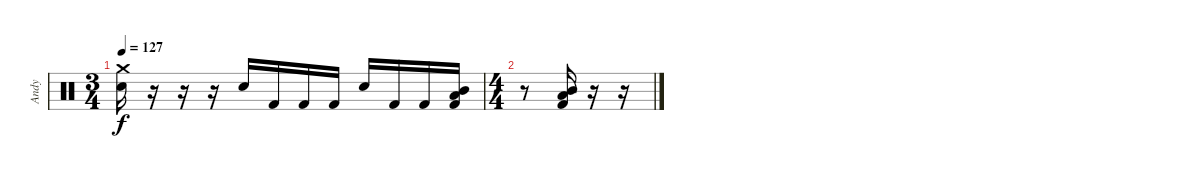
\track ("Andy" "Andy") {instrument percussion}
\staff {score}
\articulation defaults
\ts (3 4)
\tempo 127
\clef neutral
\ks c
("Crash medium (hit)" "Electric Snare (hit)").16{dy f} r.16 r.16 r.16 "Electric Snare (hit)".16 "Kick (hit) 2".16 "Kick (hit) 2".16 "Kick (hit) 2".16 "Electric Snare (hit)".16 "Kick (hit) 2".16 "Kick (hit) 2".16 ("Mid Tom (hit)" "Low Tom (hit)" "Kick (hit) 2").16 |
\ts (4 4)
r.8 ("Mid Tom (hit)" "Low Tom (hit)" "Kick (hit) 2").16 r.16 r.16
